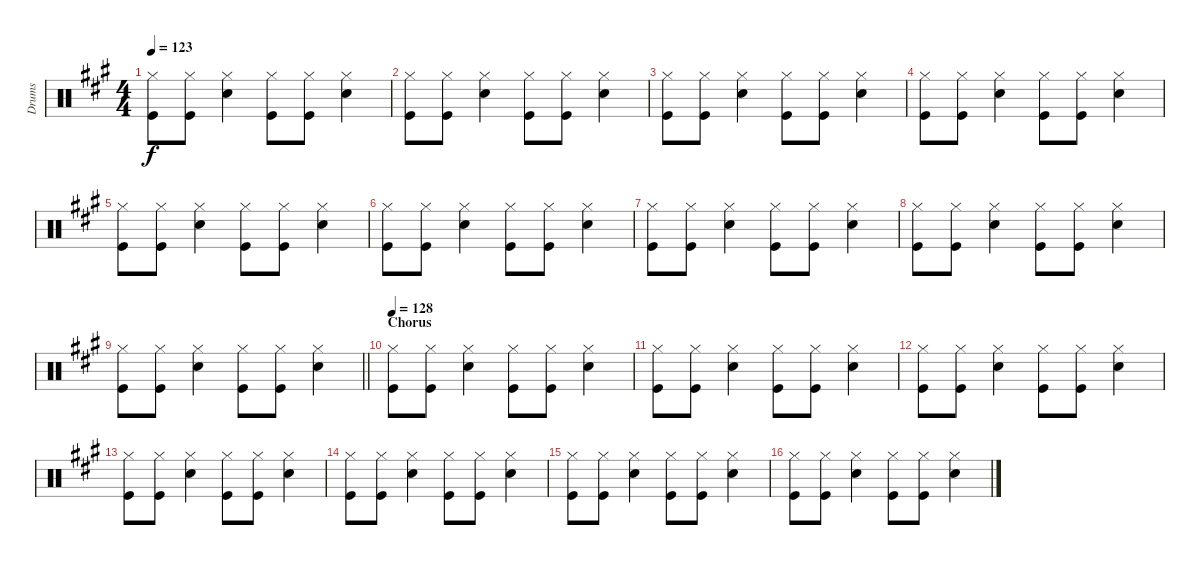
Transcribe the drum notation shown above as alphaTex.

\track ("Drums" "Drums") {instrument percussion}
\staff {score}
\articulation defaults
\ts (4 4)
\tempo 123
\clef neutral
\ks a
("Hi-Hat (closed)" "Kick (hit)").8{dy f} ("Hi-Hat (closed)" "Kick (hit)").8 ("Hi-Hat (closed)" "Snare (hit) 2").4 ("Hi-Hat (closed)" "Kick (hit)").8 ("Hi-Hat (closed)" "Kick (hit)").8 ("Hi-Hat (closed)" "Snare (hit) 2").4 |
("Hi-Hat (closed)" "Kick (hit)").8 ("Hi-Hat (closed)" "Kick (hit)").8 ("Hi-Hat (closed)" "Snare (hit) 2").4 ("Hi-Hat (closed)" "Kick (hit)").8 ("Hi-Hat (closed)" "Kick (hit)").8 ("Hi-Hat (closed)" "Snare (hit) 2").4 |
("Hi-Hat (closed)" "Kick (hit)").8 ("Hi-Hat (closed)" "Kick (hit)").8 ("Hi-Hat (closed)" "Snare (hit) 2").4 ("Hi-Hat (closed)" "Kick (hit)").8 ("Hi-Hat (closed)" "Kick (hit)").8 ("Hi-Hat (closed)" "Snare (hit) 2").4 |
("Hi-Hat (closed)" "Kick (hit)").8 ("Hi-Hat (closed)" "Kick (hit)").8 ("Hi-Hat (closed)" "Snare (hit) 2").4 ("Hi-Hat (closed)" "Kick (hit)").8 ("Hi-Hat (closed)" "Kick (hit)").8 ("Hi-Hat (closed)" "Snare (hit) 2").4 |
("Hi-Hat (closed)" "Kick (hit)").8 ("Hi-Hat (closed)" "Kick (hit)").8 ("Hi-Hat (closed)" "Snare (hit) 2").4 ("Hi-Hat (closed)" "Kick (hit)").8 ("Hi-Hat (closed)" "Kick (hit)").8 ("Hi-Hat (closed)" "Snare (hit) 2").4 |
("Hi-Hat (closed)" "Kick (hit)").8 ("Hi-Hat (closed)" "Kick (hit)").8 ("Hi-Hat (closed)" "Snare (hit) 2").4 ("Hi-Hat (closed)" "Kick (hit)").8 ("Hi-Hat (closed)" "Kick (hit)").8 ("Hi-Hat (closed)" "Snare (hit) 2").4 |
("Hi-Hat (closed)" "Kick (hit)").8 ("Hi-Hat (closed)" "Kick (hit)").8 ("Hi-Hat (closed)" "Snare (hit) 2").4 ("Hi-Hat (closed)" "Kick (hit)").8 ("Hi-Hat (closed)" "Kick (hit)").8 ("Hi-Hat (closed)" "Snare (hit) 2").4 |
("Hi-Hat (closed)" "Kick (hit)").8 ("Hi-Hat (closed)" "Kick (hit)").8 ("Hi-Hat (closed)" "Snare (hit) 2").4 ("Hi-Hat (closed)" "Kick (hit)").8 ("Hi-Hat (closed)" "Kick (hit)").8 ("Hi-Hat (closed)" "Snare (hit) 2").4 |
\barLineRight lightlight
("Hi-Hat (closed)" "Kick (hit)").8 ("Hi-Hat (closed)" "Kick (hit)").8 ("Hi-Hat (closed)" "Snare (hit) 2").4 ("Hi-Hat (closed)" "Kick (hit)").8 ("Hi-Hat (closed)" "Kick (hit)").8 ("Hi-Hat (closed)" "Snare (hit) 2").4 |
\section ("" "Chorus")
\tempo 128
("Hi-Hat (closed)" "Kick (hit)").8 ("Hi-Hat (closed)" "Kick (hit)").8 ("Hi-Hat (closed)" "Snare (hit) 2").4 ("Hi-Hat (closed)" "Kick (hit)").8 ("Hi-Hat (closed)" "Kick (hit)").8 ("Hi-Hat (closed)" "Snare (hit) 2").4 |
("Hi-Hat (closed)" "Kick (hit)").8 ("Hi-Hat (closed)" "Kick (hit)").8 ("Hi-Hat (closed)" "Snare (hit) 2").4 ("Hi-Hat (closed)" "Kick (hit)").8 ("Hi-Hat (closed)" "Kick (hit)").8 ("Hi-Hat (closed)" "Snare (hit) 2").4 |
("Hi-Hat (closed)" "Kick (hit)").8 ("Hi-Hat (closed)" "Kick (hit)").8 ("Hi-Hat (closed)" "Snare (hit) 2").4 ("Hi-Hat (closed)" "Kick (hit)").8 ("Hi-Hat (closed)" "Kick (hit)").8 ("Hi-Hat (closed)" "Snare (hit) 2").4 |
("Hi-Hat (closed)" "Kick (hit)").8 ("Hi-Hat (closed)" "Kick (hit)").8 ("Hi-Hat (closed)" "Snare (hit) 2").4 ("Hi-Hat (closed)" "Kick (hit)").8 ("Hi-Hat (closed)" "Kick (hit)").8 ("Hi-Hat (closed)" "Snare (hit) 2").4 |
("Hi-Hat (closed)" "Kick (hit)").8 ("Hi-Hat (closed)" "Kick (hit)").8 ("Hi-Hat (closed)" "Snare (hit) 2").4 ("Hi-Hat (closed)" "Kick (hit)").8 ("Hi-Hat (closed)" "Kick (hit)").8 ("Hi-Hat (closed)" "Snare (hit) 2").4 |
("Hi-Hat (closed)" "Kick (hit)").8 ("Hi-Hat (closed)" "Kick (hit)").8 ("Hi-Hat (closed)" "Snare (hit) 2").4 ("Hi-Hat (closed)" "Kick (hit)").8 ("Hi-Hat (closed)" "Kick (hit)").8 ("Hi-Hat (closed)" "Snare (hit) 2").4 |
("Hi-Hat (closed)" "Kick (hit)").8 ("Hi-Hat (closed)" "Kick (hit)").8 ("Hi-Hat (closed)" "Snare (hit) 2").4 ("Hi-Hat (closed)" "Kick (hit)").8 ("Hi-Hat (closed)" "Kick (hit)").8 ("Hi-Hat (closed)" "Snare (hit) 2").4
